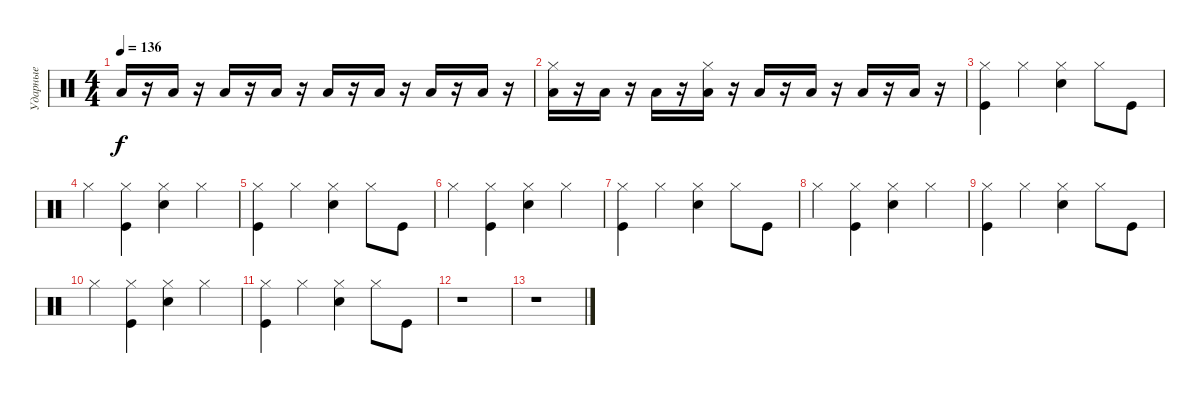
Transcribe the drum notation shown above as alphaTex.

\track ("Ударные" "Ударные") {instrument percussion}
\staff {score}
\articulation defaults
\ts (4 4)
\tempo 136
\clef neutral
\ks c "Low Tom (hit)".16{dy f}
r.16 "Low Tom (hit)".16 r.16 "Low Tom (hit)".16 r.16 "Low Tom (hit)".16 r.16 "Low Tom (hit)".16 r.16 "Low Tom (hit)".16 r.16 "Low Tom (hit)".16 r.16 "Low Tom (hit)".16 r.16 |
("Low Tom (hit)" "Hi-Hat (closed)").16 r.16 "Low Tom (hit)".16 r.16 "Low Tom (hit)".16 r.16 ("Low Tom (hit)" "Hi-Hat (closed)").16 r.16 "Low Tom (hit)".16 r.16 "Low Tom (hit)".16 r.16 "Low Tom (hit)".16 r.16 "Low Tom (hit)".16 r.16 |
("Kick (hit)" "Hi-Hat (closed)").4 "Hi-Hat (closed)".4 ("Snare (hit) 2" "Hi-Hat (closed)").4 "Hi-Hat (closed)".8 "Kick (hit)".8 |
"Hi-Hat (closed)".4 ("Kick (hit)" "Hi-Hat (closed)").4 ("Hi-Hat (closed)" "Snare (hit) 2").4 "Hi-Hat (closed)".4 |
("Kick (hit)" "Hi-Hat (closed)").4 "Hi-Hat (closed)".4 ("Snare (hit) 2" "Hi-Hat (closed)").4 "Hi-Hat (closed)".8 "Kick (hit)".8 |
"Hi-Hat (closed)".4 ("Kick (hit)" "Hi-Hat (closed)").4 ("Hi-Hat (closed)" "Snare (hit) 2").4 "Hi-Hat (closed)".4 |
("Kick (hit)" "Hi-Hat (closed)").4 "Hi-Hat (closed)".4 ("Snare (hit) 2" "Hi-Hat (closed)").4 "Hi-Hat (closed)".8 "Kick (hit)".8 |
"Hi-Hat (closed)".4 ("Kick (hit)" "Hi-Hat (closed)").4 ("Hi-Hat (closed)" "Snare (hit) 2").4 "Hi-Hat (closed)".4 |
("Kick (hit)" "Hi-Hat (closed)").4 "Hi-Hat (closed)".4 ("Snare (hit) 2" "Hi-Hat (closed)").4 "Hi-Hat (closed)".8 "Kick (hit)".8 |
"Hi-Hat (closed)".4 ("Kick (hit)" "Hi-Hat (closed)").4 ("Hi-Hat (closed)" "Snare (hit) 2").4 "Hi-Hat (closed)".4 |
("Kick (hit)" "Hi-Hat (closed)").4 "Hi-Hat (closed)".4 ("Snare (hit) 2" "Hi-Hat (closed)").4 "Hi-Hat (closed)".8 "Kick (hit)".8 |
r.1 |
r.1
